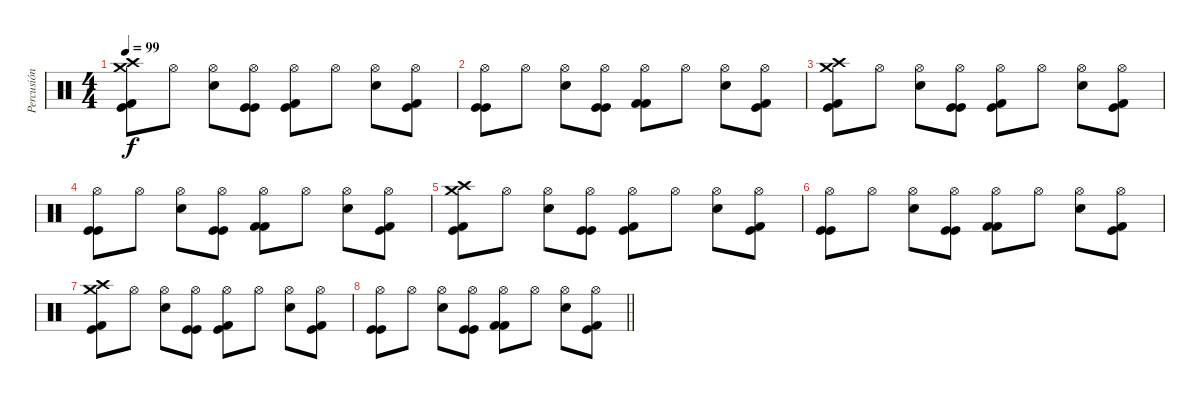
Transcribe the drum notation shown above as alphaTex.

\track ("Percusión" "Percusión") {instrument percussion}
\staff {score}
\articulation defaults
\ts (4 4)
\tempo 99
\clef neutral
\ks c
("Crash high (hit)" "Crash medium (hit)" "Kick (hit)" "Kick (hit) 2").8{dy f} "Hi-Hat (open)".8 ("Hi-Hat (open)" "Electric Snare (hit)").8 ("Hi-Hat (open)" "Kick (hit)" "Kick (hit)").8 ("Hi-Hat (open)" "Kick (hit) 2" "Kick (hit)").8 "Hi-Hat (open)".8 ("Hi-Hat (open)" "Electric Snare (hit)").8 ("Hi-Hat (open)" "Kick (hit) 2" "Kick (hit)").8 |
("Hi-Hat (open)" "Kick (hit)" "Kick (hit)").8 "Hi-Hat (open)".8 ("Hi-Hat (open)" "Electric Snare (hit)").8 ("Hi-Hat (open)" "Kick (hit)" "Kick (hit)").8 ("Hi-Hat (open)" "Kick (hit) 2" "Kick (hit) 2").8 "Hi-Hat (open)".8 ("Hi-Hat (open)" "Electric Snare (hit)").8 ("Hi-Hat (open)" "Kick (hit) 2" "Kick (hit)").8 |
("Crash high (hit)" "Crash medium (hit)" "Kick (hit)" "Kick (hit) 2").8 "Hi-Hat (open)".8 ("Hi-Hat (open)" "Electric Snare (hit)").8 ("Hi-Hat (open)" "Kick (hit)" "Kick (hit)").8 ("Hi-Hat (open)" "Kick (hit) 2" "Kick (hit)").8 "Hi-Hat (open)".8 ("Hi-Hat (open)" "Electric Snare (hit)").8 ("Hi-Hat (open)" "Kick (hit) 2" "Kick (hit)").8 |
("Hi-Hat (open)" "Kick (hit)" "Kick (hit)").8 "Hi-Hat (open)".8 ("Hi-Hat (open)" "Electric Snare (hit)").8 ("Hi-Hat (open)" "Kick (hit)" "Kick (hit)").8 ("Hi-Hat (open)" "Kick (hit) 2" "Kick (hit) 2").8 "Hi-Hat (open)".8 ("Hi-Hat (open)" "Electric Snare (hit)").8 ("Hi-Hat (open)" "Kick (hit) 2" "Kick (hit)").8 |
("Crash high (hit)" "Crash medium (hit)" "Kick (hit)" "Kick (hit) 2").8 "Hi-Hat (open)".8 ("Hi-Hat (open)" "Electric Snare (hit)").8 ("Hi-Hat (open)" "Kick (hit)" "Kick (hit)").8 ("Hi-Hat (open)" "Kick (hit) 2" "Kick (hit)").8 "Hi-Hat (open)".8 ("Hi-Hat (open)" "Electric Snare (hit)").8 ("Hi-Hat (open)" "Kick (hit) 2" "Kick (hit)").8 |
("Hi-Hat (open)" "Kick (hit)" "Kick (hit)").8 "Hi-Hat (open)".8 ("Hi-Hat (open)" "Electric Snare (hit)").8 ("Hi-Hat (open)" "Kick (hit)" "Kick (hit)").8 ("Hi-Hat (open)" "Kick (hit) 2" "Kick (hit) 2").8 "Hi-Hat (open)".8 ("Hi-Hat (open)" "Electric Snare (hit)").8 ("Hi-Hat (open)" "Kick (hit) 2" "Kick (hit)").8 |
("Crash high (hit)" "Crash medium (hit)" "Kick (hit)" "Kick (hit) 2").8 "Hi-Hat (open)".8 ("Hi-Hat (open)" "Electric Snare (hit)").8 ("Hi-Hat (open)" "Kick (hit)" "Kick (hit)").8 ("Hi-Hat (open)" "Kick (hit) 2" "Kick (hit)").8 "Hi-Hat (open)".8 ("Hi-Hat (open)" "Electric Snare (hit)").8 ("Hi-Hat (open)" "Kick (hit) 2" "Kick (hit)").8 |
\barLineRight lightlight
("Hi-Hat (open)" "Kick (hit)" "Kick (hit)").8 "Hi-Hat (open)".8 ("Hi-Hat (open)" "Electric Snare (hit)").8 ("Hi-Hat (open)" "Kick (hit)" "Kick (hit)").8 ("Hi-Hat (open)" "Kick (hit) 2" "Kick (hit) 2").8 "Hi-Hat (open)".8 ("Hi-Hat (open)" "Electric Snare (hit)").8 ("Hi-Hat (open)" "Kick (hit) 2" "Kick (hit)").8
